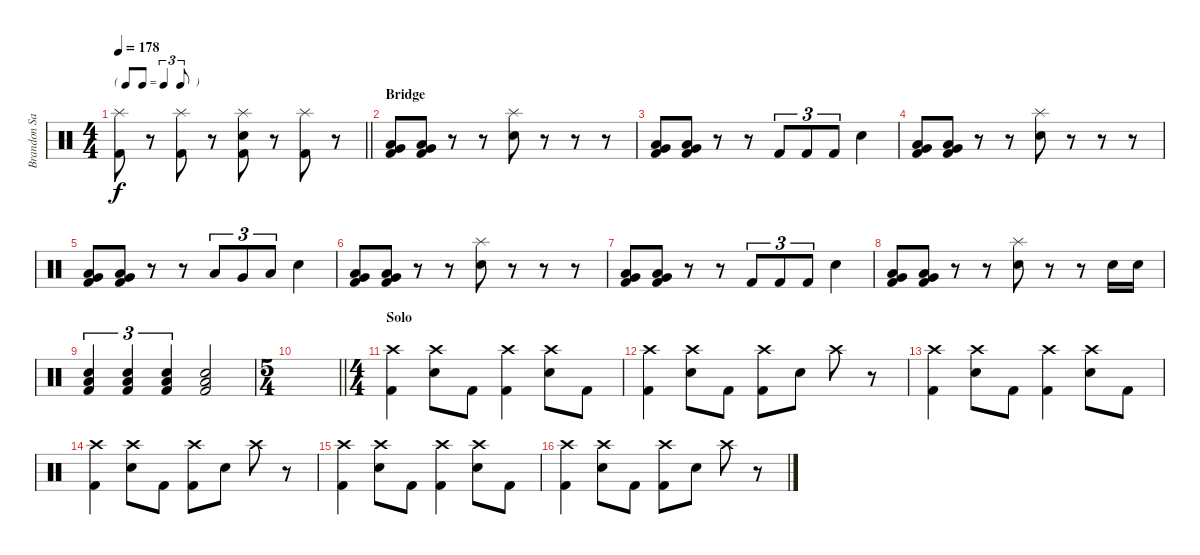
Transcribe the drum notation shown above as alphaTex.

\track ("Brandon Saller" "Brandon Sa") {instrument percussion}
\staff {score}
\articulation defaults
\ts (4 4)
\tf triplet8th
\tempo 178
\clef neutral
\barLineRight lightlight
\ks c
("Splash (hit)" "Kick (hit) 2").8{dy f} r.8 ("Splash (hit)" "Kick (hit) 2").8 r.8 ("Splash (hit)" "Electric Snare (hit)" "Kick (hit) 2").8 r.8 ("Splash (hit)" "Kick (hit) 2").8 r.8 |
\section ("" "Bridge")
("Very Low Tom (hit)" "Low Floor Tom (hit)" "Kick (hit) 2").8 ("Very Low Tom (hit)" "Low Floor Tom (hit)" "Kick (hit) 2").8 r.8 r.8 ("Splash (hit)" "Electric Snare (hit)").8 r.8 r.8 r.8 |
("Very Low Tom (hit)" "Low Floor Tom (hit)" "Kick (hit) 2").8 ("Very Low Tom (hit)" "Low Floor Tom (hit)" "Kick (hit) 2").8 r.8 r.8 "Kick (hit) 2".8{tu (3 2)} "Kick (hit) 2".8{tu (3 2)} "Kick (hit) 2".8{tu (3 2)} "Electric Snare (hit)".4 |
("Very Low Tom (hit)" "Low Floor Tom (hit)" "Kick (hit) 2").8 ("Very Low Tom (hit)" "Low Floor Tom (hit)" "Kick (hit) 2").8 r.8 r.8 ("Splash (hit)" "Electric Snare (hit)").8 r.8 r.8 r.8 |
("Very Low Tom (hit)" "Low Floor Tom (hit)" "Kick (hit) 2").8 ("Very Low Tom (hit)" "Low Floor Tom (hit)" "Kick (hit) 2").8 r.8 r.8 "Low Tom (hit)".8{tu (3 2)} "Very Low Tom (hit)".8{tu (3 2)} "Low Floor Tom (hit)".8{tu (3 2)} "Electric Snare (hit)".4 |
("Very Low Tom (hit)" "Low Floor Tom (hit)" "Kick (hit) 2").8 ("Very Low Tom (hit)" "Low Floor Tom (hit)" "Kick (hit) 2").8 r.8 r.8 ("Splash (hit)" "Electric Snare (hit)").8 r.8 r.8 r.8 |
("Very Low Tom (hit)" "Low Floor Tom (hit)" "Kick (hit) 2").8 ("Very Low Tom (hit)" "Low Floor Tom (hit)" "Kick (hit) 2").8 r.8 r.8 "Kick (hit) 2".8{tu (3 2)} "Kick (hit) 2".8{tu (3 2)} "Kick (hit) 2".8{tu (3 2)} "Electric Snare (hit)".4 |
("Very Low Tom (hit)" "Low Floor Tom (hit)" "Kick (hit) 2").8 ("Very Low Tom (hit)" "Low Floor Tom (hit)" "Kick (hit) 2").8 r.8 r.8 ("Splash (hit)" "Electric Snare (hit)").8 r.8 r.8 "Electric Snare (hit)".16 "Electric Snare (hit)".16 |
("Electric Snare (hit)" "Low Floor Tom (hit)" "Kick (hit) 2").4{tu (3 2)} ("Electric Snare (hit)" "Low Floor Tom (hit)" "Kick (hit) 2").4{tu (3 2)} ("Electric Snare (hit)" "Low Floor Tom (hit)" "Kick (hit) 2").4{tu (3 2)} ("Electric Snare (hit)" "Low Floor Tom (hit)" "Kick (hit) 2").2 |
\ts (5 4)
\barLineRight lightlight
|
\ts (4 4)
\section ("" "Solo")
("Crash high (hit)" "Kick (hit) 2").4 ("Crash high (hit)" "Electric Snare (hit)").8 "Kick (hit) 2".8 ("Crash high (hit)" "Kick (hit) 2").4 ("Crash high (hit)" "Electric Snare (hit)").8 "Kick (hit) 2".8 |
("Crash high (hit)" "Kick (hit) 2").4 ("Crash high (hit)" "Electric Snare (hit)").8 "Kick (hit) 2".8 ("Crash high (hit)" "Kick (hit) 2").8 "Electric Snare (hit)".8 "Crash high (hit)".8 r.8 |
("Crash high (hit)" "Kick (hit) 2").4 ("Crash high (hit)" "Electric Snare (hit)").8 "Kick (hit) 2".8 ("Crash high (hit)" "Kick (hit) 2").4 ("Crash high (hit)" "Electric Snare (hit)").8 "Kick (hit) 2".8 |
("Crash high (hit)" "Kick (hit) 2").4 ("Crash high (hit)" "Electric Snare (hit)").8 "Kick (hit) 2".8 ("Crash high (hit)" "Kick (hit) 2").8 "Electric Snare (hit)".8 "Crash high (hit)".8 r.8 |
("Crash high (hit)" "Kick (hit) 2").4 ("Crash high (hit)" "Electric Snare (hit)").8 "Kick (hit) 2".8 ("Crash high (hit)" "Kick (hit) 2").4 ("Crash high (hit)" "Electric Snare (hit)").8 "Kick (hit) 2".8 |
("Crash high (hit)" "Kick (hit) 2").4 ("Crash high (hit)" "Electric Snare (hit)").8 "Kick (hit) 2".8 ("Crash high (hit)" "Kick (hit) 2").8 "Electric Snare (hit)".8 "Crash high (hit)".8 r.8
